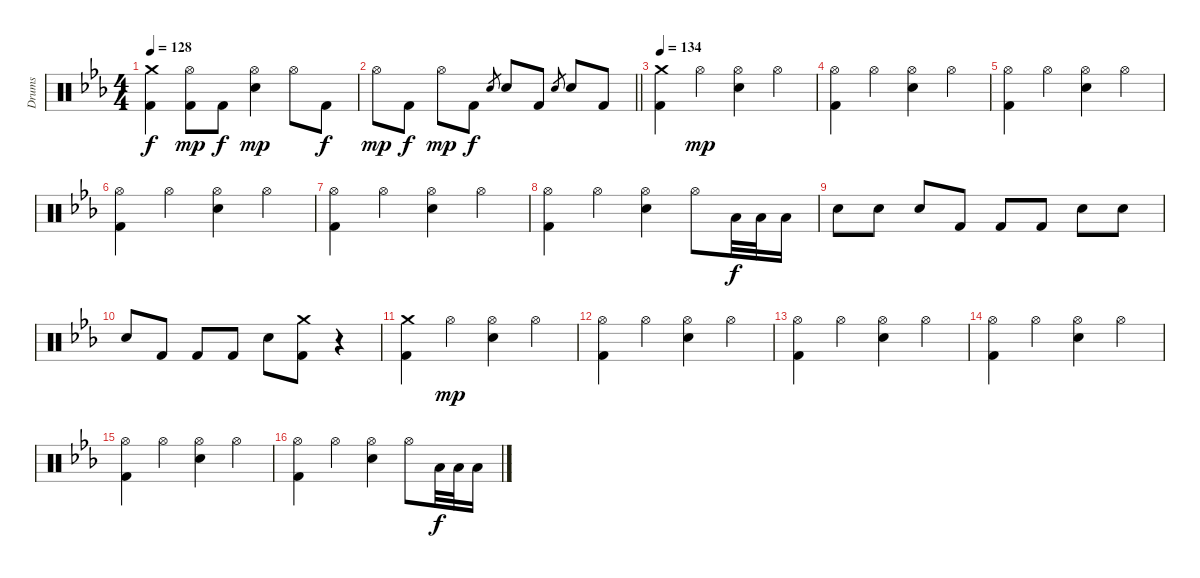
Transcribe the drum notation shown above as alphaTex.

\track ("Drums" "Drums") {instrument percussion}
\staff {score}
\articulation defaults
\ts (4 4)
\tempo 128
\clef neutral
\ks cminor
("Crash medium (hit)" "Kick (hit) 2").4{dy f} ("Hi-Hat (open)" "Kick (hit) 2").8{dy mp} "Kick (hit) 2".8{dy f} ("Hi-Hat (open)" "Electric Snare (hit)").4{dy mp} "Hi-Hat (open)".8 "Kick (hit) 2".8{dy f} |
\barLineRight lightlight "Hi-Hat (open)".8{dy mp} "Kick (hit) 2".8{dy f} "Hi-Hat (open)".8{dy mp} "Kick (hit) 2".8{dy f} "Electric Snare (hit)".8{gr} "Electric Snare (hit)".8 "Kick (hit) 2".8 "Electric Snare (hit)".8{gr} "Electric Snare (hit)".8 "Kick (hit) 2".8
|
\tempo 134
("Crash medium (hit)" "Kick (hit) 2").4 "Hi-Hat (open)".4{dy mp} ("Hi-Hat (open)" "Electric Snare (hit)").4 "Hi-Hat (open)".4 |
("Hi-Hat (open)" "Kick (hit) 2").4 "Hi-Hat (open)".4 ("Hi-Hat (open)" "Electric Snare (hit)").4 "Hi-Hat (open)".4 |
("Hi-Hat (open)" "Kick (hit) 2").4 "Hi-Hat (open)".4 ("Hi-Hat (open)" "Electric Snare (hit)").4 "Hi-Hat (open)".4 |
("Hi-Hat (open)" "Kick (hit) 2").4 "Hi-Hat (open)".4 ("Hi-Hat (open)" "Electric Snare (hit)").4 "Hi-Hat (open)".4 |
("Hi-Hat (open)" "Kick (hit) 2").4 "Hi-Hat (open)".4 ("Hi-Hat (open)" "Electric Snare (hit)").4 "Hi-Hat (open)".4 |
("Hi-Hat (open)" "Kick (hit) 2").4 "Hi-Hat (open)".4 ("Hi-Hat (open)" "Electric Snare (hit)").4 "Hi-Hat (open)".8 "Low Tom (hit)".32{dy f} "Low Tom (hit)".32 "Low Tom (hit)".16 |
"Electric Snare (hit)".8 "Electric Snare (hit)".8 "Electric Snare (hit)".8 "Kick (hit) 2".8 "Kick (hit) 2".8 "Kick (hit) 2".8 "Electric Snare (hit)".8 "Electric Snare (hit)".8 |
"Electric Snare (hit)".8 "Kick (hit) 2".8 "Kick (hit) 2".8 "Kick (hit) 2".8 "Electric Snare (hit)".8 ("Crash medium (hit)" "Kick (hit) 2").8 r.4 |
("Crash medium (hit)" "Kick (hit) 2").4 "Hi-Hat (open)".4{dy mp} ("Hi-Hat (open)" "Electric Snare (hit)").4 "Hi-Hat (open)".4 |
("Hi-Hat (open)" "Kick (hit) 2").4 "Hi-Hat (open)".4 ("Hi-Hat (open)" "Electric Snare (hit)").4 "Hi-Hat (open)".4 |
("Hi-Hat (open)" "Kick (hit) 2").4 "Hi-Hat (open)".4 ("Hi-Hat (open)" "Electric Snare (hit)").4 "Hi-Hat (open)".4 |
("Hi-Hat (open)" "Kick (hit) 2").4 "Hi-Hat (open)".4 ("Hi-Hat (open)" "Electric Snare (hit)").4 "Hi-Hat (open)".4 |
("Hi-Hat (open)" "Kick (hit) 2").4 "Hi-Hat (open)".4 ("Hi-Hat (open)" "Electric Snare (hit)").4 "Hi-Hat (open)".4 |
("Hi-Hat (open)" "Kick (hit) 2").4 "Hi-Hat (open)".4 ("Hi-Hat (open)" "Electric Snare (hit)").4 "Hi-Hat (open)".8 "Low Tom (hit)".32{dy f} "Low Tom (hit)".32 "Low Tom (hit)".16
